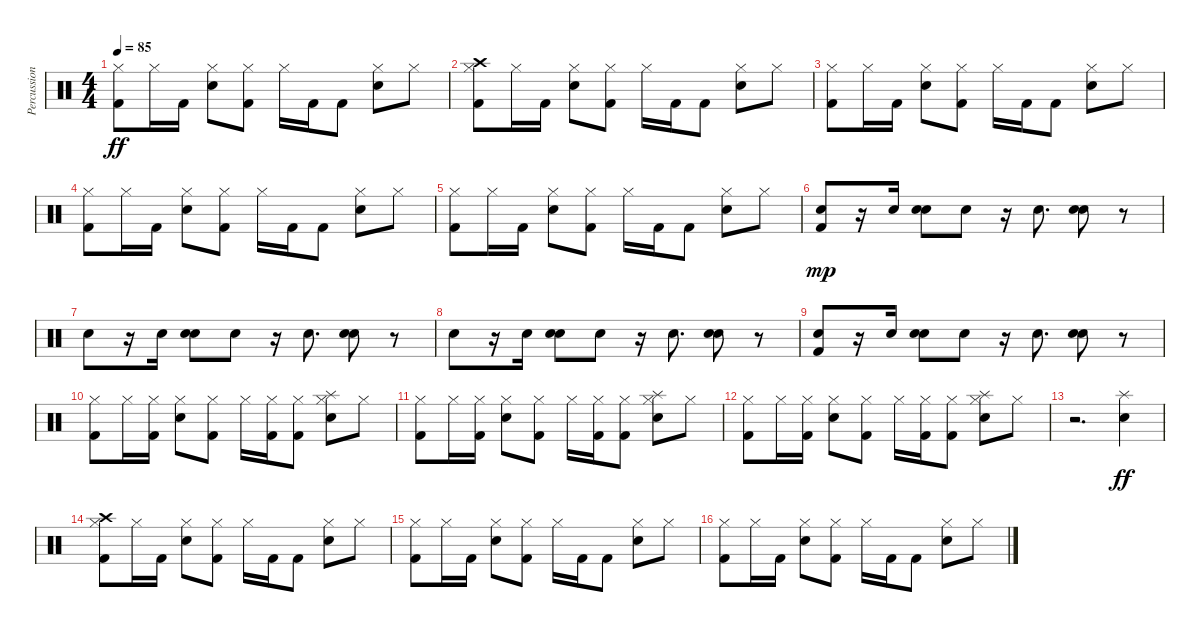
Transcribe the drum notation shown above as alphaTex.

\track ("Percussion" "Percussion") {instrument percussion}
\staff {score}
\articulation defaults
\ts (4 4)
\tempo 85
\clef neutral
\ks c
("Hi-Hat (closed)" "Kick (hit) 2").8{dy ff} "Hi-Hat (closed)".16 "Kick (hit) 2".16 ("Hi-Hat (closed)" "Electric Snare (hit)").8 ("Hi-Hat (closed)" "Kick (hit) 2").8 "Hi-Hat (closed)".16 "Kick (hit) 2".16 "Kick (hit) 2".8 ("Hi-Hat (closed)" "Electric Snare (hit)").8 "Hi-Hat (closed)".8 |
("Crash high (hit)" "Hi-Hat (closed)" "Kick (hit) 2").8 "Hi-Hat (closed)".16 "Kick (hit) 2".16 ("Hi-Hat (closed)" "Electric Snare (hit)").8 ("Hi-Hat (closed)" "Kick (hit) 2").8 "Hi-Hat (closed)".16 "Kick (hit) 2".16 "Kick (hit) 2".8 ("Hi-Hat (closed)" "Electric Snare (hit)").8 "Hi-Hat (closed)".8 |
("Hi-Hat (closed)" "Kick (hit) 2").8 "Hi-Hat (closed)".16 "Kick (hit) 2".16 ("Hi-Hat (closed)" "Electric Snare (hit)").8 ("Hi-Hat (closed)" "Kick (hit) 2").8 "Hi-Hat (closed)".16 "Kick (hit) 2".16 "Kick (hit) 2".8 ("Hi-Hat (closed)" "Electric Snare (hit)").8 "Hi-Hat (closed)".8 |
("Hi-Hat (closed)" "Kick (hit) 2").8 "Hi-Hat (closed)".16 "Kick (hit) 2".16 ("Hi-Hat (closed)" "Electric Snare (hit)").8 ("Hi-Hat (closed)" "Kick (hit) 2").8 "Hi-Hat (closed)".16 "Kick (hit) 2".16 "Kick (hit) 2".8 ("Hi-Hat (closed)" "Electric Snare (hit)").8 "Hi-Hat (closed)".8 |
("Hi-Hat (closed)" "Kick (hit) 2").8 "Hi-Hat (closed)".16 "Kick (hit) 2".16 ("Hi-Hat (closed)" "Electric Snare (hit)").8 ("Hi-Hat (closed)" "Kick (hit) 2").8 "Hi-Hat (closed)".16 "Kick (hit) 2".16 "Kick (hit) 2".8 ("Hi-Hat (closed)" "Electric Snare (hit)").8 "Hi-Hat (closed)".8 |
("Electric Snare (hit)" "Kick (hit) 2").8{dy mp} r.16 "Electric Snare (hit)".16 ("Hand Clap (hit)" "Electric Snare (hit)").8 "Electric Snare (hit)".8 r.16 "Electric Snare (hit)".8{d} ("Hand Clap (hit)" "Electric Snare (hit)").8 r.8 |
"Electric Snare (hit)".8 r.16 "Electric Snare (hit)".16 ("Hand Clap (hit)" "Electric Snare (hit)").8 "Electric Snare (hit)".8 r.16 "Electric Snare (hit)".8{d} ("Hand Clap (hit)" "Electric Snare (hit)").8 r.8 |
"Electric Snare (hit)".8 r.16 "Electric Snare (hit)".16 ("Hand Clap (hit)" "Electric Snare (hit)").8 "Electric Snare (hit)".8 r.16 "Electric Snare (hit)".8{d} ("Hand Clap (hit)" "Electric Snare (hit)").8 r.8 |
("Electric Snare (hit)" "Kick (hit) 2").8 r.16 "Electric Snare (hit)".16 ("Hand Clap (hit)" "Electric Snare (hit)").8 "Electric Snare (hit)".8 r.16 "Electric Snare (hit)".8{d} ("Hand Clap (hit)" "Electric Snare (hit)").8 r.8 |
("Hi-Hat (closed)" "Kick (hit) 2").8 "Hi-Hat (closed)".16 ("Hi-Hat (closed)" "Kick (hit) 2").16 ("Hand Clap (hit)" "Hi-Hat (closed)").8 ("Hi-Hat (closed)" "Kick (hit) 2").8 "Hi-Hat (closed)".16 ("Hi-Hat (closed)" "Kick (hit) 2").16 ("Hi-Hat (closed)" "Kick (hit) 2").8 ("Splash (hit)" "Hi-Hat (closed)" "Snare (hit) 2").8 "Hi-Hat (closed)".8 |
("Hi-Hat (closed)" "Kick (hit) 2").8 "Hi-Hat (closed)".16 ("Hi-Hat (closed)" "Kick (hit) 2").16 ("Hand Clap (hit)" "Hi-Hat (closed)").8 ("Hi-Hat (closed)" "Kick (hit) 2").8 "Hi-Hat (closed)".16 ("Hi-Hat (closed)" "Kick (hit) 2").16 ("Hi-Hat (closed)" "Kick (hit) 2").8 ("Splash (hit)" "Hi-Hat (closed)" "Snare (hit) 2").8 "Hi-Hat (closed)".8 |
("Hi-Hat (closed)" "Kick (hit) 2").8 "Hi-Hat (closed)".16 ("Hi-Hat (closed)" "Kick (hit) 2").16 ("Hand Clap (hit)" "Hi-Hat (closed)").8 ("Hi-Hat (closed)" "Kick (hit) 2").8 "Hi-Hat (closed)".16 ("Hi-Hat (closed)" "Kick (hit) 2").16 ("Hi-Hat (closed)" "Kick (hit) 2").8 ("Splash (hit)" "Hi-Hat (closed)" "Snare (hit) 2").8 "Hi-Hat (closed)".8 |
r.2{d} ("Splash (hit)" "Snare (hit) 2").4{dy ff} |
("Crash high (hit)" "Hi-Hat (closed)" "Kick (hit) 2").8 "Hi-Hat (closed)".16 "Kick (hit) 2".16 ("Hi-Hat (closed)" "Electric Snare (hit)").8 ("Hi-Hat (closed)" "Kick (hit) 2").8 "Hi-Hat (closed)".16 "Kick (hit) 2".16 "Kick (hit) 2".8 ("Hi-Hat (closed)" "Electric Snare (hit)").8 "Hi-Hat (closed)".8 |
("Hi-Hat (closed)" "Kick (hit) 2").8 "Hi-Hat (closed)".16 "Kick (hit) 2".16 ("Hi-Hat (closed)" "Electric Snare (hit)").8 ("Hi-Hat (closed)" "Kick (hit) 2").8 "Hi-Hat (closed)".16 "Kick (hit) 2".16 "Kick (hit) 2".8 ("Hi-Hat (closed)" "Electric Snare (hit)").8 "Hi-Hat (closed)".8 |
("Hi-Hat (closed)" "Kick (hit) 2").8 "Hi-Hat (closed)".16 "Kick (hit) 2".16 ("Hi-Hat (closed)" "Electric Snare (hit)").8 ("Hi-Hat (closed)" "Kick (hit) 2").8 "Hi-Hat (closed)".16 "Kick (hit) 2".16 "Kick (hit) 2".8 ("Hi-Hat (closed)" "Electric Snare (hit)").8 "Hi-Hat (closed)".8
